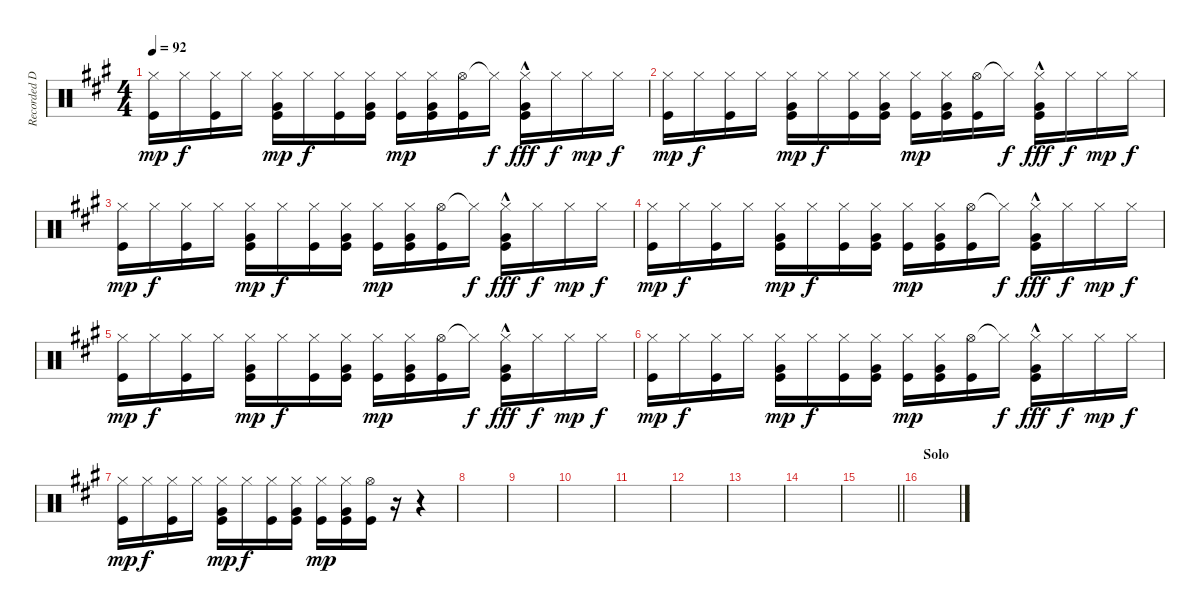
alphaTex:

\track ("Recorded Durms" "Recorded D") {instrument percussion}
\staff {score}
\articulation defaults
\ts (4 4)
\tempo 92
\clef neutral
\ks a
("Hi-Hat (closed)" "Kick (hit)").16{dy mp} "Hi-Hat (closed)".16{dy f} ("Hi-Hat (closed)" "Kick (hit)").16 "Hi-Hat (closed)".16 ("Hi-Hat (closed)" "Very Low Tom (hit)" "Kick (hit)").16{dy mp} "Hi-Hat (closed)".16{dy f} ("Hi-Hat (closed)" "Kick (hit)").16 ("Hi-Hat (closed)" "Very Low Tom (hit)" "Kick (hit)").16 ("Hi-Hat (closed)" "Kick (hit)").16{dy mp} ("Hi-Hat (closed)" "Very Low Tom (hit)" "Kick (hit)").16 ("Hi-Hat (open)" "Kick (hit)").16 "Hi-Hat (closed)"{t}.16{dy f} ("Hi-Hat (closed)" "Very Low Tom (hit)"{hac} "Kick (hit)").16{dy fff} "Hi-Hat (closed)".16{dy f} "Hi-Hat (closed)".16{dy mp} "Hi-Hat (closed)".16{dy f} |
("Hi-Hat (closed)" "Kick (hit)").16{dy mp} "Hi-Hat (closed)".16{dy f} ("Hi-Hat (closed)" "Kick (hit)").16 "Hi-Hat (closed)".16 ("Hi-Hat (closed)" "Very Low Tom (hit)" "Kick (hit)").16{dy mp} "Hi-Hat (closed)".16{dy f} ("Hi-Hat (closed)" "Kick (hit)").16 ("Hi-Hat (closed)" "Very Low Tom (hit)" "Kick (hit)").16 ("Hi-Hat (closed)" "Kick (hit)").16{dy mp} ("Hi-Hat (closed)" "Very Low Tom (hit)" "Kick (hit)").16 ("Hi-Hat (open)" "Kick (hit)").16 "Hi-Hat (closed)"{t}.16{dy f} ("Hi-Hat (closed)" "Very Low Tom (hit)"{hac} "Kick (hit)").16{dy fff} "Hi-Hat (closed)".16{dy f} "Hi-Hat (closed)".16{dy mp} "Hi-Hat (closed)".16{dy f} |
("Hi-Hat (closed)" "Kick (hit)").16{dy mp} "Hi-Hat (closed)".16{dy f} ("Hi-Hat (closed)" "Kick (hit)").16 "Hi-Hat (closed)".16 ("Hi-Hat (closed)" "Very Low Tom (hit)" "Kick (hit)").16{dy mp} "Hi-Hat (closed)".16{dy f} ("Hi-Hat (closed)" "Kick (hit)").16 ("Hi-Hat (closed)" "Very Low Tom (hit)" "Kick (hit)").16 ("Hi-Hat (closed)" "Kick (hit)").16{dy mp} ("Hi-Hat (closed)" "Very Low Tom (hit)" "Kick (hit)").16 ("Hi-Hat (open)" "Kick (hit)").16 "Hi-Hat (closed)"{t}.16{dy f} ("Hi-Hat (closed)" "Very Low Tom (hit)"{hac} "Kick (hit)").16{dy fff} "Hi-Hat (closed)".16{dy f} "Hi-Hat (closed)".16{dy mp} "Hi-Hat (closed)".16{dy f} |
("Hi-Hat (closed)" "Kick (hit)").16{dy mp} "Hi-Hat (closed)".16{dy f} ("Hi-Hat (closed)" "Kick (hit)").16 "Hi-Hat (closed)".16 ("Hi-Hat (closed)" "Very Low Tom (hit)" "Kick (hit)").16{dy mp} "Hi-Hat (closed)".16{dy f} ("Hi-Hat (closed)" "Kick (hit)").16 ("Hi-Hat (closed)" "Very Low Tom (hit)" "Kick (hit)").16 ("Hi-Hat (closed)" "Kick (hit)").16{dy mp} ("Hi-Hat (closed)" "Very Low Tom (hit)" "Kick (hit)").16 ("Hi-Hat (open)" "Kick (hit)").16 "Hi-Hat (closed)"{t}.16{dy f} ("Hi-Hat (closed)" "Very Low Tom (hit)"{hac} "Kick (hit)").16{dy fff} "Hi-Hat (closed)".16{dy f} "Hi-Hat (closed)".16{dy mp} "Hi-Hat (closed)".16{dy f} |
("Hi-Hat (closed)" "Kick (hit)").16{dy mp} "Hi-Hat (closed)".16{dy f} ("Hi-Hat (closed)" "Kick (hit)").16 "Hi-Hat (closed)".16 ("Hi-Hat (closed)" "Very Low Tom (hit)" "Kick (hit)").16{dy mp} "Hi-Hat (closed)".16{dy f} ("Hi-Hat (closed)" "Kick (hit)").16 ("Hi-Hat (closed)" "Very Low Tom (hit)" "Kick (hit)").16 ("Hi-Hat (closed)" "Kick (hit)").16{dy mp} ("Hi-Hat (closed)" "Very Low Tom (hit)" "Kick (hit)").16 ("Hi-Hat (open)" "Kick (hit)").16 "Hi-Hat (closed)"{t}.16{dy f} ("Hi-Hat (closed)" "Very Low Tom (hit)"{hac} "Kick (hit)").16{dy fff} "Hi-Hat (closed)".16{dy f} "Hi-Hat (closed)".16{dy mp} "Hi-Hat (closed)".16{dy f} |
("Hi-Hat (closed)" "Kick (hit)").16{dy mp} "Hi-Hat (closed)".16{dy f} ("Hi-Hat (closed)" "Kick (hit)").16 "Hi-Hat (closed)".16 ("Hi-Hat (closed)" "Very Low Tom (hit)" "Kick (hit)").16{dy mp} "Hi-Hat (closed)".16{dy f} ("Hi-Hat (closed)" "Kick (hit)").16 ("Hi-Hat (closed)" "Very Low Tom (hit)" "Kick (hit)").16 ("Hi-Hat (closed)" "Kick (hit)").16{dy mp} ("Hi-Hat (closed)" "Very Low Tom (hit)" "Kick (hit)").16 ("Hi-Hat (open)" "Kick (hit)").16 "Hi-Hat (closed)"{t}.16{dy f} ("Hi-Hat (closed)" "Very Low Tom (hit)"{hac} "Kick (hit)").16{dy fff} "Hi-Hat (closed)".16{dy f} "Hi-Hat (closed)".16{dy mp} "Hi-Hat (closed)".16{dy f} |
("Hi-Hat (closed)" "Kick (hit)").16{dy mp} "Hi-Hat (closed)".16{dy f} ("Hi-Hat (closed)" "Kick (hit)").16 "Hi-Hat (closed)".16 ("Hi-Hat (closed)" "Very Low Tom (hit)" "Kick (hit)").16{dy mp} "Hi-Hat (closed)".16{dy f} ("Hi-Hat (closed)" "Kick (hit)").16 ("Hi-Hat (closed)" "Very Low Tom (hit)" "Kick (hit)").16 ("Hi-Hat (closed)" "Kick (hit)").16{dy mp} ("Hi-Hat (closed)" "Very Low Tom (hit)" "Kick (hit)").16 ("Hi-Hat (open)" "Kick (hit)").16 r.16 r.4 |
|
|
|
|
|
|
|
\barLineRight lightlight
|
\section ("" "Solo")
